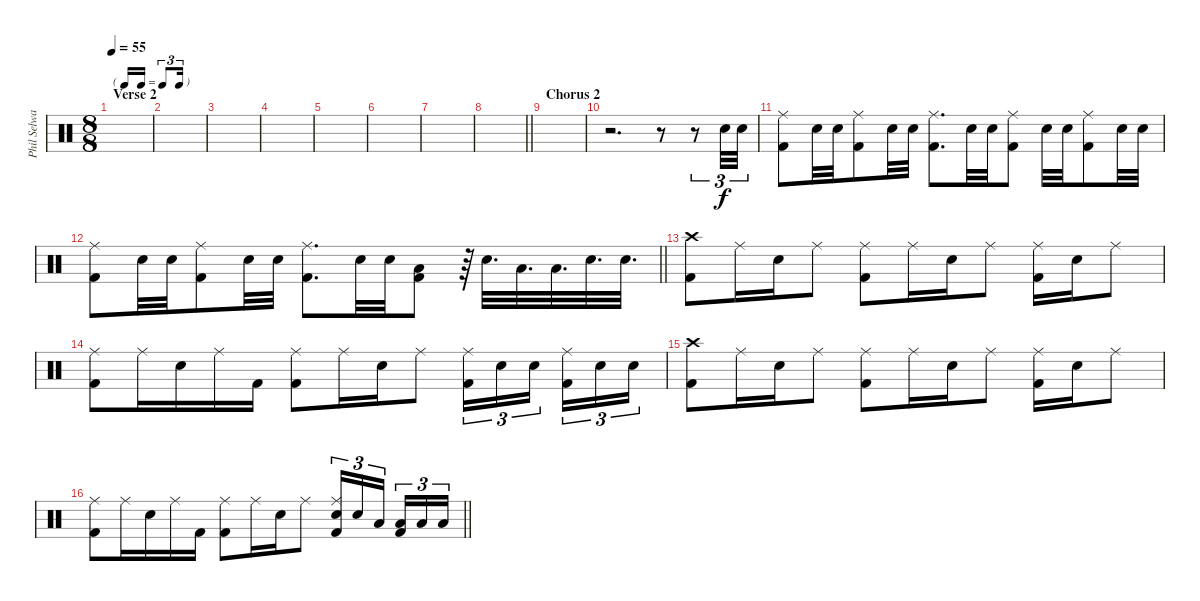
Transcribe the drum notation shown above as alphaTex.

\track ("Phil Selway(drums)" "Phil Selwa") {instrument percussion}
\staff {score}
\articulation defaults
\ts (8 8)
\tf triplet16th
\section ("" "Verse 2")
\tempo 55
\clef neutral
\ks c
|
|
|
|
|
|
|
\barLineRight lightlight
|
\section ("" "Chorus 2")
|
r.2{d} r.8 r.8{tu (3 2)} "Snare (hit) 2".32{tu (3 2)} "Snare (hit) 2".32{tu (3 2)} |
("Ride (middle)" "Kick (hit) 2").8 "Snare (hit) 2".32 "Snare (hit) 2".32 ("Ride (middle)" "Kick (hit) 2").8 "Snare (hit) 2".32 "Snare (hit) 2".32 ("Ride (middle)" "Kick (hit) 2").8{d} "Snare (hit) 2".32 "Snare (hit) 2".32 ("Ride (middle)" "Kick (hit) 2").8 "Snare (hit) 2".32 "Snare (hit) 2".32 ("Ride (middle)" "Kick (hit) 2").8 "Snare (hit) 2".32 "Snare (hit) 2".32 |
\barLineRight lightlight
("Ride (middle)" "Kick (hit) 2").8 "Snare (hit) 2".32 "Snare (hit) 2".32 ("Ride (middle)" "Kick (hit) 2").8 "Snare (hit) 2".32 "Snare (hit) 2".32 ("Ride (middle)" "Kick (hit) 2").8{d} "Snare (hit) 2".32 "Snare (hit) 2".32 ("Low Tom (hit)" "Kick (hit) 2").8 r.64 "Snare (hit) 2".32{d} "Low Tom (hit)".32{d} "Low Tom (hit)".32{d} "Snare (hit) 2".32{d} "Snare (hit) 2".32{d} |
("Crash high (hit)" "Kick (hit) 2").8 "Ride (middle)".16 "Snare (hit) 2".16 "Ride (middle)".8 ("Ride (middle)" "Kick (hit) 2").8 "Ride (middle)".16 "Snare (hit) 2".16 "Ride (middle)".8 ("Ride (middle)" "Kick (hit) 2").16 "Snare (hit) 2".16 "Ride (middle)".8 |
("Ride (middle)" "Kick (hit) 2").8 "Ride (middle)".16 "Snare (hit) 2".16 "Ride (middle)".16 "Kick (hit) 2".16 ("Ride (middle)" "Kick (hit) 2").8 "Ride (middle)".16 "Snare (hit) 2".16 "Ride (middle)".8 ("Ride (middle)" "Kick (hit) 2").16{tu (3 2)} "Snare (hit) 2".16{tu (3 2)} "Snare (hit) 2".16{tu (3 2)} ("Ride (middle)" "Kick (hit) 2").16{tu (3 2)} "Snare (hit) 2".16{tu (3 2)} "Snare (hit) 2".16{tu (3 2)} |
("Crash high (hit)" "Kick (hit) 2").8 "Ride (middle)".16 "Snare (hit) 2".16 "Ride (middle)".8 ("Ride (middle)" "Kick (hit) 2").8 "Ride (middle)".16 "Snare (hit) 2".16 "Ride (middle)".8 ("Ride (middle)" "Kick (hit) 2").16 "Snare (hit) 2".16 "Ride (middle)".8 |
\barLineRight lightlight
("Ride (middle)" "Kick (hit) 2").8 "Ride (middle)".16 "Snare (hit) 2".16 "Ride (middle)".16 "Kick (hit) 2".16 ("Ride (middle)" "Kick (hit) 2").8 "Ride (middle)".16 "Snare (hit) 2".16 "Ride (middle)".8 ("Ride (middle)" "Snare (hit) 2" "Kick (hit) 2").16{tu (3 2)} "Snare (hit) 2".16{tu (3 2)} "Low Tom (hit)".16{tu (3 2)} ("Low Tom (hit)" "Kick (hit) 2").16{tu (3 2)} "Low Floor Tom (hit)".16{tu (3 2)} "Low Floor Tom (hit)".16{tu (3 2)}
